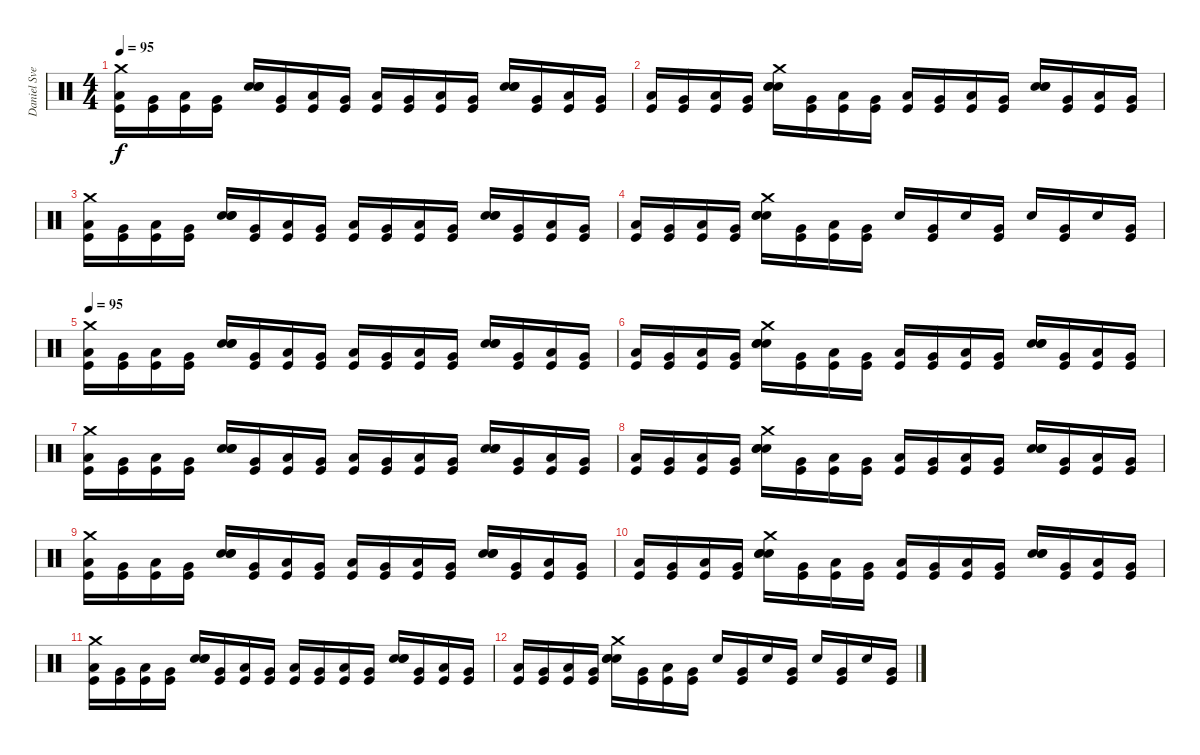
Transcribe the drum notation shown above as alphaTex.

\track ("Daniel Svensson" "Daniel Sve") {instrument percussion}
\staff {score}
\articulation defaults
\ts (4 4)
\tempo 95
\clef neutral
\ks c
("Crash medium (hit)" "Low Floor Tom (hit)" "Kick (hit)").16{dy f} ("Very Low Tom (hit)" "Kick (hit)").16 ("Low Floor Tom (hit)" "Kick (hit)").16 ("Very Low Tom (hit)" "Kick (hit)").16 ("Snare (hit) 2" "Snare (hit) 2" "Snare (hit) 2").16 ("Very Low Tom (hit)" "Kick (hit)").16 ("Low Floor Tom (hit)" "Kick (hit)").16 ("Very Low Tom (hit)" "Kick (hit)").16 ("Low Floor Tom (hit)" "Kick (hit)").16 ("Very Low Tom (hit)" "Kick (hit)").16 ("Low Floor Tom (hit)" "Kick (hit)").16 ("Very Low Tom (hit)" "Kick (hit)").16 ("Snare (hit) 2" "Snare (hit) 2" "Snare (hit) 2").16 ("Very Low Tom (hit)" "Kick (hit)").16 ("Low Floor Tom (hit)" "Kick (hit)").16 ("Very Low Tom (hit)" "Kick (hit)").16 |
("Low Floor Tom (hit)" "Kick (hit)").16 ("Very Low Tom (hit)" "Kick (hit)").16 ("Low Floor Tom (hit)" "Kick (hit)").16 ("Very Low Tom (hit)" "Kick (hit)").16 ("Crash medium (hit)" "Snare (hit) 2" "Snare (hit) 2" "Snare (hit) 2").16 ("Very Low Tom (hit)" "Kick (hit)").16 ("Low Floor Tom (hit)" "Kick (hit)").16 ("Very Low Tom (hit)" "Kick (hit)").16 ("Low Floor Tom (hit)" "Kick (hit)").16 ("Very Low Tom (hit)" "Kick (hit)").16 ("Low Floor Tom (hit)" "Kick (hit)").16 ("Very Low Tom (hit)" "Kick (hit)").16 ("Snare (hit) 2" "Snare (hit) 2" "Snare (hit) 2").16 ("Very Low Tom (hit)" "Kick (hit)").16 ("Low Floor Tom (hit)" "Kick (hit)").16 ("Very Low Tom (hit)" "Kick (hit)").16 |
("Crash medium (hit)" "Low Floor Tom (hit)" "Kick (hit)").16 ("Very Low Tom (hit)" "Kick (hit)").16 ("Low Floor Tom (hit)" "Kick (hit)").16 ("Very Low Tom (hit)" "Kick (hit)").16 ("Snare (hit) 2" "Snare (hit) 2" "Snare (hit) 2").16 ("Very Low Tom (hit)" "Kick (hit)").16 ("Low Floor Tom (hit)" "Kick (hit)").16 ("Very Low Tom (hit)" "Kick (hit)").16 ("Low Floor Tom (hit)" "Kick (hit)").16 ("Very Low Tom (hit)" "Kick (hit)").16 ("Low Floor Tom (hit)" "Kick (hit)").16 ("Very Low Tom (hit)" "Kick (hit)").16 ("Snare (hit) 2" "Snare (hit) 2" "Snare (hit) 2").16 ("Very Low Tom (hit)" "Kick (hit)").16 ("Low Floor Tom (hit)" "Kick (hit)").16 ("Very Low Tom (hit)" "Kick (hit)").16 |
("Low Floor Tom (hit)" "Kick (hit)").16 ("Very Low Tom (hit)" "Kick (hit)").16 ("Low Floor Tom (hit)" "Kick (hit)").16 ("Very Low Tom (hit)" "Kick (hit)").16 ("Crash medium (hit)" "Snare (hit) 2" "Snare (hit) 2" "Snare (hit) 2").16 ("Very Low Tom (hit)" "Kick (hit)").16 ("Low Floor Tom (hit)" "Kick (hit)").16 ("Very Low Tom (hit)" "Kick (hit)").16 "Snare (hit) 2".16 ("Very Low Tom (hit)" "Kick (hit)").16 "Snare (hit) 2".16 ("Very Low Tom (hit)" "Kick (hit)").16 "Snare (hit) 2".16 ("Very Low Tom (hit)" "Kick (hit)").16 "Snare (hit) 2".16 ("Very Low Tom (hit)" "Kick (hit)").16 |
\tempo 95
("Crash medium (hit)" "Low Floor Tom (hit)" "Kick (hit)").16 ("Very Low Tom (hit)" "Kick (hit)").16 ("Low Floor Tom (hit)" "Kick (hit)").16 ("Very Low Tom (hit)" "Kick (hit)").16 ("Snare (hit) 2" "Snare (hit) 2" "Snare (hit) 2").16 ("Very Low Tom (hit)" "Kick (hit)").16 ("Low Floor Tom (hit)" "Kick (hit)").16 ("Very Low Tom (hit)" "Kick (hit)").16 ("Low Floor Tom (hit)" "Kick (hit)").16 ("Very Low Tom (hit)" "Kick (hit)").16 ("Low Floor Tom (hit)" "Kick (hit)").16 ("Very Low Tom (hit)" "Kick (hit)").16 ("Snare (hit) 2" "Snare (hit) 2" "Snare (hit) 2").16 ("Very Low Tom (hit)" "Kick (hit)").16 ("Low Floor Tom (hit)" "Kick (hit)").16 ("Very Low Tom (hit)" "Kick (hit)").16 |
("Low Floor Tom (hit)" "Kick (hit)").16 ("Very Low Tom (hit)" "Kick (hit)").16 ("Low Floor Tom (hit)" "Kick (hit)").16 ("Very Low Tom (hit)" "Kick (hit)").16 ("Crash medium (hit)" "Snare (hit) 2" "Snare (hit) 2" "Snare (hit) 2").16 ("Very Low Tom (hit)" "Kick (hit)").16 ("Low Floor Tom (hit)" "Kick (hit)").16 ("Very Low Tom (hit)" "Kick (hit)").16 ("Low Floor Tom (hit)" "Kick (hit)").16 ("Very Low Tom (hit)" "Kick (hit)").16 ("Low Floor Tom (hit)" "Kick (hit)").16 ("Very Low Tom (hit)" "Kick (hit)").16 ("Snare (hit) 2" "Snare (hit) 2" "Snare (hit) 2").16 ("Very Low Tom (hit)" "Kick (hit)").16 ("Low Floor Tom (hit)" "Kick (hit)").16 ("Very Low Tom (hit)" "Kick (hit)").16 |
("Crash medium (hit)" "Low Floor Tom (hit)" "Kick (hit)").16 ("Very Low Tom (hit)" "Kick (hit)").16 ("Low Floor Tom (hit)" "Kick (hit)").16 ("Very Low Tom (hit)" "Kick (hit)").16 ("Snare (hit) 2" "Snare (hit) 2" "Snare (hit) 2").16 ("Very Low Tom (hit)" "Kick (hit)").16 ("Low Floor Tom (hit)" "Kick (hit)").16 ("Very Low Tom (hit)" "Kick (hit)").16 ("Low Floor Tom (hit)" "Kick (hit)").16 ("Very Low Tom (hit)" "Kick (hit)").16 ("Low Floor Tom (hit)" "Kick (hit)").16 ("Very Low Tom (hit)" "Kick (hit)").16 ("Snare (hit) 2" "Snare (hit) 2" "Snare (hit) 2").16 ("Very Low Tom (hit)" "Kick (hit)").16 ("Low Floor Tom (hit)" "Kick (hit)").16 ("Very Low Tom (hit)" "Kick (hit)").16 |
("Low Floor Tom (hit)" "Kick (hit)").16 ("Very Low Tom (hit)" "Kick (hit)").16 ("Low Floor Tom (hit)" "Kick (hit)").16 ("Very Low Tom (hit)" "Kick (hit)").16 ("Crash medium (hit)" "Snare (hit) 2" "Snare (hit) 2" "Snare (hit) 2").16 ("Very Low Tom (hit)" "Kick (hit)").16 ("Low Floor Tom (hit)" "Kick (hit)").16 ("Very Low Tom (hit)" "Kick (hit)").16 ("Low Floor Tom (hit)" "Kick (hit)").16 ("Very Low Tom (hit)" "Kick (hit)").16 ("Low Floor Tom (hit)" "Kick (hit)").16 ("Very Low Tom (hit)" "Kick (hit)").16 ("Snare (hit) 2" "Snare (hit) 2" "Snare (hit) 2").16 ("Very Low Tom (hit)" "Kick (hit)").16 ("Low Floor Tom (hit)" "Kick (hit)").16 ("Very Low Tom (hit)" "Kick (hit)").16 |
("Crash medium (hit)" "Low Floor Tom (hit)" "Kick (hit)").16 ("Very Low Tom (hit)" "Kick (hit)").16 ("Low Floor Tom (hit)" "Kick (hit)").16 ("Very Low Tom (hit)" "Kick (hit)").16 ("Snare (hit) 2" "Snare (hit) 2" "Snare (hit) 2").16 ("Very Low Tom (hit)" "Kick (hit)").16 ("Low Floor Tom (hit)" "Kick (hit)").16 ("Very Low Tom (hit)" "Kick (hit)").16 ("Low Floor Tom (hit)" "Kick (hit)").16 ("Very Low Tom (hit)" "Kick (hit)").16 ("Low Floor Tom (hit)" "Kick (hit)").16 ("Very Low Tom (hit)" "Kick (hit)").16 ("Snare (hit) 2" "Snare (hit) 2" "Snare (hit) 2").16 ("Very Low Tom (hit)" "Kick (hit)").16 ("Low Floor Tom (hit)" "Kick (hit)").16 ("Very Low Tom (hit)" "Kick (hit)").16 |
("Low Floor Tom (hit)" "Kick (hit)").16 ("Very Low Tom (hit)" "Kick (hit)").16 ("Low Floor Tom (hit)" "Kick (hit)").16 ("Very Low Tom (hit)" "Kick (hit)").16 ("Crash medium (hit)" "Snare (hit) 2" "Snare (hit) 2" "Snare (hit) 2").16 ("Very Low Tom (hit)" "Kick (hit)").16 ("Low Floor Tom (hit)" "Kick (hit)").16 ("Very Low Tom (hit)" "Kick (hit)").16 ("Low Floor Tom (hit)" "Kick (hit)").16 ("Very Low Tom (hit)" "Kick (hit)").16 ("Low Floor Tom (hit)" "Kick (hit)").16 ("Very Low Tom (hit)" "Kick (hit)").16 ("Snare (hit) 2" "Snare (hit) 2" "Snare (hit) 2").16 ("Very Low Tom (hit)" "Kick (hit)").16 ("Low Floor Tom (hit)" "Kick (hit)").16 ("Very Low Tom (hit)" "Kick (hit)").16 |
("Crash medium (hit)" "Low Floor Tom (hit)" "Kick (hit)").16 ("Very Low Tom (hit)" "Kick (hit)").16 ("Low Floor Tom (hit)" "Kick (hit)").16 ("Very Low Tom (hit)" "Kick (hit)").16 ("Snare (hit) 2" "Snare (hit) 2" "Snare (hit) 2").16 ("Very Low Tom (hit)" "Kick (hit)").16 ("Low Floor Tom (hit)" "Kick (hit)").16 ("Very Low Tom (hit)" "Kick (hit)").16 ("Low Floor Tom (hit)" "Kick (hit)").16 ("Very Low Tom (hit)" "Kick (hit)").16 ("Low Floor Tom (hit)" "Kick (hit)").16 ("Very Low Tom (hit)" "Kick (hit)").16 ("Snare (hit) 2" "Snare (hit) 2" "Snare (hit) 2").16 ("Very Low Tom (hit)" "Kick (hit)").16 ("Low Floor Tom (hit)" "Kick (hit)").16 ("Very Low Tom (hit)" "Kick (hit)").16 |
("Low Floor Tom (hit)" "Kick (hit)").16 ("Very Low Tom (hit)" "Kick (hit)").16 ("Low Floor Tom (hit)" "Kick (hit)").16 ("Very Low Tom (hit)" "Kick (hit)").16 ("Crash medium (hit)" "Snare (hit) 2" "Snare (hit) 2" "Snare (hit) 2").16 ("Very Low Tom (hit)" "Kick (hit)").16 ("Low Floor Tom (hit)" "Kick (hit)").16 ("Very Low Tom (hit)" "Kick (hit)").16 "Snare (hit) 2".16 ("Very Low Tom (hit)" "Kick (hit)").16 "Snare (hit) 2".16 ("Very Low Tom (hit)" "Kick (hit)").16 "Snare (hit) 2".16 ("Very Low Tom (hit)" "Kick (hit)").16 "Snare (hit) 2".16 ("Very Low Tom (hit)" "Kick (hit)").16
